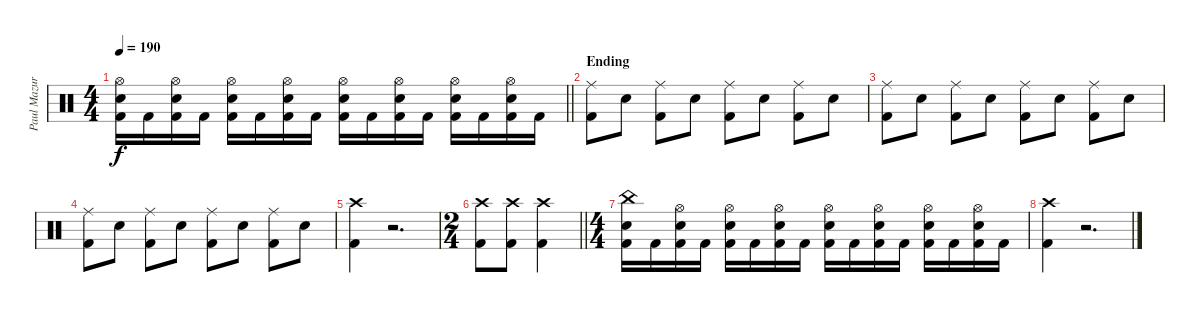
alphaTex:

\track ("Paul Mazurkiewicz" "Paul Mazur") {instrument percussion}
\staff {score}
\articulation defaults
\ts (4 4)
\tempo 190
\clef neutral
\barLineRight lightlight
\ks c
("Hi-Hat (open)" "Electric Snare (hit)" "Kick (hit) 2").16{dy f} "Kick (hit) 2".16 ("Hi-Hat (open)" "Electric Snare (hit)" "Kick (hit) 2").16 "Kick (hit) 2".16 ("Hi-Hat (open)" "Electric Snare (hit)" "Kick (hit) 2").16 "Kick (hit) 2".16 ("Hi-Hat (open)" "Electric Snare (hit)" "Kick (hit) 2").16 "Kick (hit) 2".16 ("Hi-Hat (open)" "Electric Snare (hit)" "Kick (hit) 2").16 "Kick (hit) 2".16 ("Hi-Hat (open)" "Electric Snare (hit)" "Kick (hit) 2").16 "Kick (hit) 2".16 ("Hi-Hat (open)" "Electric Snare (hit)" "Kick (hit) 2").16 "Kick (hit) 2".16 ("Hi-Hat (open)" "Electric Snare (hit)" "Kick (hit) 2").16 "Kick (hit) 2".16 |
\section ("" "Ending")
("Ride (middle)" "Kick (hit) 2").8 "Electric Snare (hit)".8 ("Ride (middle)" "Kick (hit) 2").8 "Electric Snare (hit)".8 ("Ride (middle)" "Kick (hit) 2").8 "Electric Snare (hit)".8 ("Ride (middle)" "Kick (hit) 2").8 "Electric Snare (hit)".8 |
("Ride (middle)" "Kick (hit) 2").8 "Electric Snare (hit)".8 ("Ride (middle)" "Kick (hit) 2").8 "Electric Snare (hit)".8 ("Ride (middle)" "Kick (hit) 2").8 "Electric Snare (hit)".8 ("Ride (middle)" "Kick (hit) 2").8 "Electric Snare (hit)".8 |
("Ride (middle)" "Kick (hit) 2").8 "Electric Snare (hit)".8 ("Ride (middle)" "Kick (hit) 2").8 "Electric Snare (hit)".8 ("Ride (middle)" "Kick (hit) 2").8 "Electric Snare (hit)".8 ("Ride (middle)" "Kick (hit) 2").8 "Electric Snare (hit)".8 |
("Crash high (hit)" "Kick (hit) 2").4 r.2{d} |
\ts (2 4)
\barLineRight lightlight
("Crash high (hit)" "Kick (hit) 2").8 ("Crash high (hit)" "Kick (hit) 2").8 ("Crash high (hit)" "Kick (hit) 2").4 |
\ts (4 4)
("China (hit)" "Electric Snare (hit)" "Kick (hit) 2").16 "Kick (hit) 2".16 ("Hi-Hat (open)" "Electric Snare (hit)" "Kick (hit) 2").16 "Kick (hit) 2".16 ("Hi-Hat (open)" "Electric Snare (hit)" "Kick (hit) 2").16 "Kick (hit) 2".16 ("Hi-Hat (open)" "Electric Snare (hit)" "Kick (hit) 2").16 "Kick (hit) 2".16 ("Hi-Hat (open)" "Electric Snare (hit)" "Kick (hit) 2").16 "Kick (hit) 2".16 ("Hi-Hat (open)" "Electric Snare (hit)" "Kick (hit) 2").16 "Kick (hit) 2".16 ("Hi-Hat (open)" "Electric Snare (hit)" "Kick (hit) 2").16 "Kick (hit) 2".16 ("Hi-Hat (open)" "Electric Snare (hit)" "Kick (hit) 2").16 "Kick (hit) 2".16 |
("Crash high (hit)" "Kick (hit) 2").4 r.2{d}
